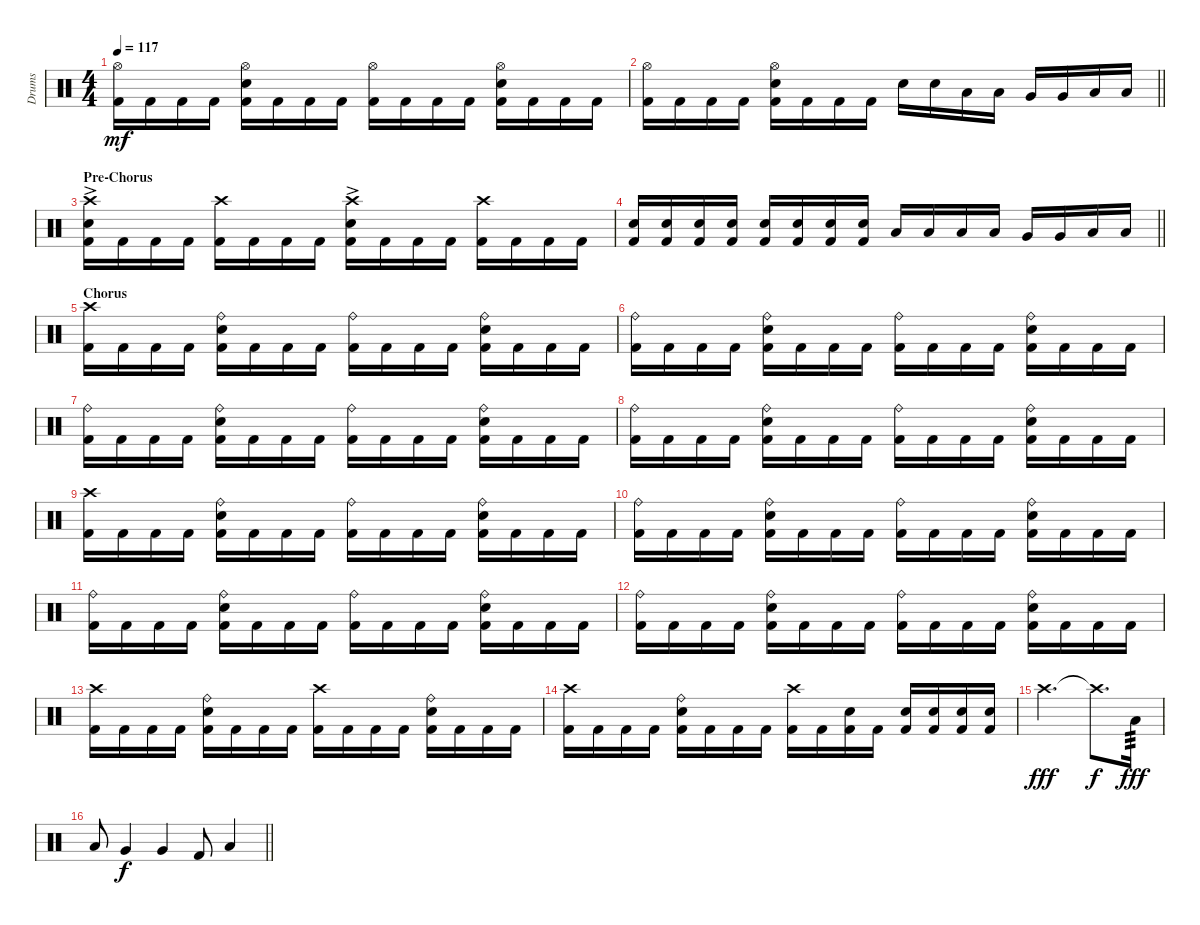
\track ("Drums" "Drums") {instrument percussion}
\staff {score}
\articulation defaults
\ts (4 4)
\tempo 117
\clef neutral
\ks c
("Hi-Hat (open)" "Kick (hit) 2").16{dy mf} "Kick (hit) 2".16 "Kick (hit) 2".16 "Kick (hit) 2".16 ("Hi-Hat (open)" "Snare (hit) 2" "Kick (hit) 2").16 "Kick (hit) 2".16 "Kick (hit) 2".16 "Kick (hit) 2".16 ("Hi-Hat (open)" "Kick (hit) 2").16 "Kick (hit) 2".16 "Kick (hit) 2".16 "Kick (hit) 2".16 ("Hi-Hat (open)" "Snare (hit) 2" "Kick (hit) 2").16 "Kick (hit) 2".16 "Kick (hit) 2".16 "Kick (hit) 2".16 |
\barLineRight lightlight
("Hi-Hat (open)" "Kick (hit) 2").16 "Kick (hit) 2".16 "Kick (hit) 2".16 "Kick (hit) 2".16 ("Hi-Hat (open)" "Snare (hit) 2" "Kick (hit) 2").16 "Kick (hit) 2".16 "Kick (hit) 2".16 "Kick (hit) 2".16 "Snare (hit) 2".16 "Snare (hit) 2".16 "Low Tom (hit)".16 "Low Tom (hit)".16 "Very Low Tom (hit)".16 "Very Low Tom (hit)".16 "Low Floor Tom (hit)".16 "Low Floor Tom (hit)".16 |
\section ("" "Pre-Chorus")
("Crash high (hit)" "Snare (hit) 2"{ac} "Kick (hit) 2").16 "Kick (hit) 2".16 "Kick (hit) 2".16 "Kick (hit) 2".16 ("Crash high (hit)" "Kick (hit) 2").16 "Kick (hit) 2".16 "Kick (hit) 2".16 "Kick (hit) 2".16 ("Crash high (hit)" "Snare (hit) 2"{ac} "Kick (hit) 2").16 "Kick (hit) 2".16 "Kick (hit) 2".16 "Kick (hit) 2".16 ("Crash high (hit)" "Kick (hit) 2").16 "Kick (hit) 2".16 "Kick (hit) 2".16 "Kick (hit) 2".16 |
\barLineRight lightlight
("Snare (hit) 2" "Kick (hit) 2").16 ("Snare (hit) 2" "Kick (hit) 2").16 ("Snare (hit) 2" "Kick (hit) 2").16 ("Snare (hit) 2" "Kick (hit) 2").16 ("Snare (hit) 2" "Kick (hit) 2").16 ("Snare (hit) 2" "Kick (hit) 2").16 ("Snare (hit) 2" "Kick (hit) 2").16 ("Snare (hit) 2" "Kick (hit) 2").16 "Low Tom (hit)".16 "Low Tom (hit)".16 "Low Tom (hit)".16 "Low Tom (hit)".16 "Very Low Tom (hit)".16 "Very Low Tom (hit)".16 "Low Floor Tom (hit)".16 "Low Floor Tom (hit)".16 |
\section ("" "Chorus")
("Crash high (hit)" "Kick (hit) 2").16 "Kick (hit) 2".16 "Kick (hit) 2".16 "Kick (hit) 2".16 ("Ride (bell)" "Snare (hit) 2" "Kick (hit) 2").16 "Kick (hit) 2".16 "Kick (hit) 2".16 "Kick (hit) 2".16 ("Ride (bell)" "Kick (hit) 2").16 "Kick (hit) 2".16 "Kick (hit) 2".16 "Kick (hit) 2".16 ("Ride (bell)" "Snare (hit) 2" "Kick (hit) 2").16 "Kick (hit) 2".16 "Kick (hit) 2".16 "Kick (hit) 2".16 |
("Ride (bell)" "Kick (hit) 2").16 "Kick (hit) 2".16 "Kick (hit) 2".16 "Kick (hit) 2".16 ("Ride (bell)" "Snare (hit) 2" "Kick (hit) 2").16 "Kick (hit) 2".16 "Kick (hit) 2".16 "Kick (hit) 2".16 ("Ride (bell)" "Kick (hit) 2").16 "Kick (hit) 2".16 "Kick (hit) 2".16 "Kick (hit) 2".16 ("Ride (bell)" "Snare (hit) 2" "Kick (hit) 2").16 "Kick (hit) 2".16 "Kick (hit) 2".16 "Kick (hit) 2".16 |
("Ride (bell)" "Kick (hit) 2").16 "Kick (hit) 2".16 "Kick (hit) 2".16 "Kick (hit) 2".16 ("Ride (bell)" "Snare (hit) 2" "Kick (hit) 2").16 "Kick (hit) 2".16 "Kick (hit) 2".16 "Kick (hit) 2".16 ("Ride (bell)" "Kick (hit) 2").16 "Kick (hit) 2".16 "Kick (hit) 2".16 "Kick (hit) 2".16 ("Ride (bell)" "Snare (hit) 2" "Kick (hit) 2").16 "Kick (hit) 2".16 "Kick (hit) 2".16 "Kick (hit) 2".16 |
("Ride (bell)" "Kick (hit) 2").16 "Kick (hit) 2".16 "Kick (hit) 2".16 "Kick (hit) 2".16 ("Ride (bell)" "Snare (hit) 2" "Kick (hit) 2").16 "Kick (hit) 2".16 "Kick (hit) 2".16 "Kick (hit) 2".16 ("Ride (bell)" "Kick (hit) 2").16 "Kick (hit) 2".16 "Kick (hit) 2".16 "Kick (hit) 2".16 ("Ride (bell)" "Snare (hit) 2" "Kick (hit) 2").16 "Kick (hit) 2".16 "Kick (hit) 2".16 "Kick (hit) 2".16 |
("Crash high (hit)" "Kick (hit) 2").16 "Kick (hit) 2".16 "Kick (hit) 2".16 "Kick (hit) 2".16 ("Ride (bell)" "Snare (hit) 2" "Kick (hit) 2").16 "Kick (hit) 2".16 "Kick (hit) 2".16 "Kick (hit) 2".16 ("Ride (bell)" "Kick (hit) 2").16 "Kick (hit) 2".16 "Kick (hit) 2".16 "Kick (hit) 2".16 ("Ride (bell)" "Snare (hit) 2" "Kick (hit) 2").16 "Kick (hit) 2".16 "Kick (hit) 2".16 "Kick (hit) 2".16 |
("Ride (bell)" "Kick (hit) 2").16 "Kick (hit) 2".16 "Kick (hit) 2".16 "Kick (hit) 2".16 ("Ride (bell)" "Snare (hit) 2" "Kick (hit) 2").16 "Kick (hit) 2".16 "Kick (hit) 2".16 "Kick (hit) 2".16 ("Ride (bell)" "Kick (hit) 2").16 "Kick (hit) 2".16 "Kick (hit) 2".16 "Kick (hit) 2".16 ("Ride (bell)" "Snare (hit) 2" "Kick (hit) 2").16 "Kick (hit) 2".16 "Kick (hit) 2".16 "Kick (hit) 2".16 |
("Ride (bell)" "Kick (hit) 2").16 "Kick (hit) 2".16 "Kick (hit) 2".16 "Kick (hit) 2".16 ("Ride (bell)" "Snare (hit) 2" "Kick (hit) 2").16 "Kick (hit) 2".16 "Kick (hit) 2".16 "Kick (hit) 2".16 ("Ride (bell)" "Kick (hit) 2").16 "Kick (hit) 2".16 "Kick (hit) 2".16 "Kick (hit) 2".16 ("Ride (bell)" "Snare (hit) 2" "Kick (hit) 2").16 "Kick (hit) 2".16 "Kick (hit) 2".16 "Kick (hit) 2".16 |
("Ride (bell)" "Kick (hit) 2").16 "Kick (hit) 2".16 "Kick (hit) 2".16 "Kick (hit) 2".16 ("Ride (bell)" "Snare (hit) 2" "Kick (hit) 2").16 "Kick (hit) 2".16 "Kick (hit) 2".16 "Kick (hit) 2".16 ("Ride (bell)" "Kick (hit) 2").16 "Kick (hit) 2".16 "Kick (hit) 2".16 "Kick (hit) 2".16 ("Ride (bell)" "Snare (hit) 2" "Kick (hit) 2").16 "Kick (hit) 2".16 "Kick (hit) 2".16 "Kick (hit) 2".16 |
("Crash high (hit)" "Kick (hit) 2").16 "Kick (hit) 2".16 "Kick (hit) 2".16 "Kick (hit) 2".16 ("Ride (bell)" "Snare (hit) 2" "Kick (hit) 2").16 "Kick (hit) 2".16 "Kick (hit) 2".16 "Kick (hit) 2".16 ("Crash high (hit)" "Kick (hit) 2").16 "Kick (hit) 2".16 "Kick (hit) 2".16 "Kick (hit) 2".16 ("Ride (bell)" "Snare (hit) 2" "Kick (hit) 2").16 "Kick (hit) 2".16 "Kick (hit) 2".16 "Kick (hit) 2".16 |
("Crash high (hit)" "Kick (hit) 2").16 "Kick (hit) 2".16 "Kick (hit) 2".16 "Kick (hit) 2".16 ("Ride (bell)" "Snare (hit) 2" "Kick (hit) 2").16 "Kick (hit) 2".16 "Kick (hit) 2".16 "Kick (hit) 2".16 ("Crash high (hit)" "Kick (hit) 2").16 "Kick (hit) 2".16 ("Snare (hit) 2" "Kick (hit) 2").16 "Kick (hit) 2".16 ("Snare (hit) 2" "Kick (hit) 2").16 ("Snare (hit) 2" "Kick (hit) 2").16 ("Snare (hit) 2" "Kick (hit) 2").16 ("Snare (hit) 2" "Kick (hit) 2").16 |
"Crash high (hit)".2{d dy fff} "Crash high (hit)"{t}.8{d dy f} "Low Tom (hit)".16{tp 3 dy fff} |
\barLineRight lightlight "Low Tom (hit)".8 "Very Low Tom (hit)".4{dy f} "Very Low Tom (hit)".4 "Kick (hit) 2".8 "Low Floor Tom (hit)".4
